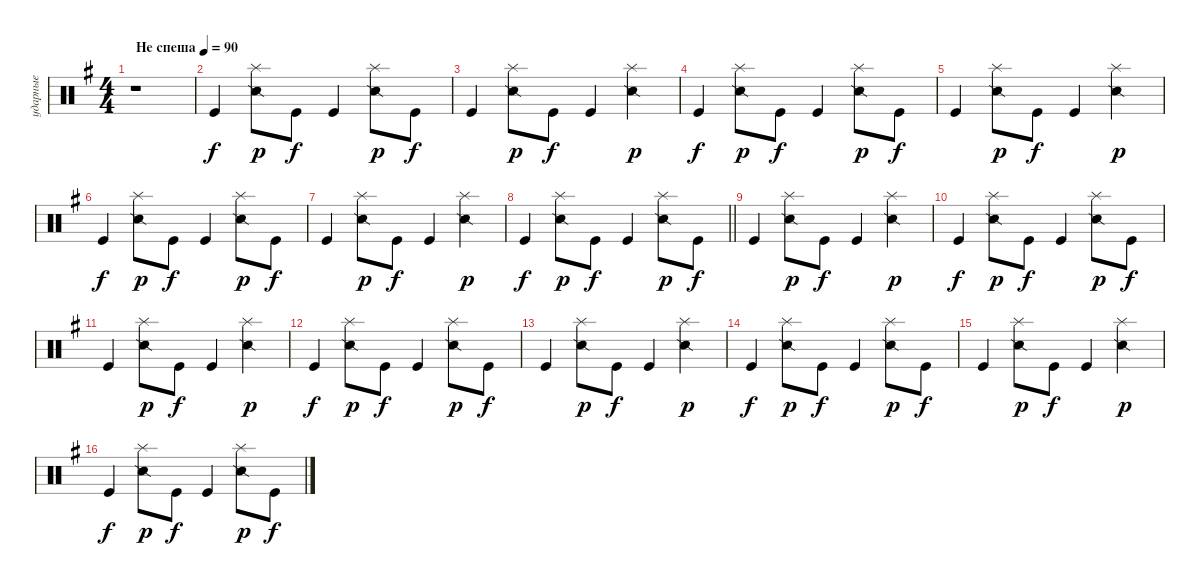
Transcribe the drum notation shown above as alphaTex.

\track ("ударные" "ударные") {instrument percussion}
\staff {score}
\articulation defaults
\ts (4 4)
\section ("" "")
\tempo (90 "Не спеша")
\clef neutral
\ks eminor
r.1{dy f} |
"Kick (hit)".4 ("Splash (hit)" "Snare (side stick) 2").8{dy p} "Kick (hit)".8{dy f} "Kick (hit)".4 ("Splash (hit)" "Snare (side stick) 2").8{dy p} "Kick (hit)".8{dy f} |
"Kick (hit)".4 ("Splash (hit)" "Snare (side stick) 2").8{dy p} "Kick (hit)".8{dy f} "Kick (hit)".4 ("Splash (hit)" "Snare (side stick) 2").4{dy p} |
"Kick (hit)".4{dy f} ("Splash (hit)" "Snare (side stick) 2").8{dy p} "Kick (hit)".8{dy f} "Kick (hit)".4 ("Splash (hit)" "Snare (side stick) 2").8{dy p} "Kick (hit)".8{dy f} |
"Kick (hit)".4 ("Splash (hit)" "Snare (side stick) 2").8{dy p} "Kick (hit)".8{dy f} "Kick (hit)".4 ("Splash (hit)" "Snare (side stick) 2").4{dy p} |
"Kick (hit)".4{dy f} ("Splash (hit)" "Snare (side stick) 2").8{dy p} "Kick (hit)".8{dy f} "Kick (hit)".4 ("Splash (hit)" "Snare (side stick) 2").8{dy p} "Kick (hit)".8{dy f} |
"Kick (hit)".4 ("Splash (hit)" "Snare (side stick) 2").8{dy p} "Kick (hit)".8{dy f} "Kick (hit)".4 ("Splash (hit)" "Snare (side stick) 2").4{dy p} |
\barLineRight lightlight "Kick (hit)".4{dy f}
("Splash (hit)" "Snare (side stick) 2").8{dy p} "Kick (hit)".8{dy f} "Kick (hit)".4 ("Splash (hit)" "Snare (side stick) 2").8{dy p} "Kick (hit)".8{dy f} |
\section ("" "")
"Kick (hit)".4 ("Splash (hit)" "Snare (side stick) 2").8{dy p} "Kick (hit)".8{dy f} "Kick (hit)".4 ("Splash (hit)" "Snare (side stick) 2").4{dy p} |
"Kick (hit)".4{dy f} ("Splash (hit)" "Snare (side stick) 2").8{dy p} "Kick (hit)".8{dy f} "Kick (hit)".4 ("Splash (hit)" "Snare (side stick) 2").8{dy p} "Kick (hit)".8{dy f} |
"Kick (hit)".4 ("Splash (hit)" "Snare (side stick) 2").8{dy p} "Kick (hit)".8{dy f} "Kick (hit)".4 ("Splash (hit)" "Snare (side stick) 2").4{dy p} |
"Kick (hit)".4{dy f} ("Splash (hit)" "Snare (side stick) 2").8{dy p} "Kick (hit)".8{dy f} "Kick (hit)".4 ("Splash (hit)" "Snare (side stick) 2").8{dy p} "Kick (hit)".8{dy f} |
"Kick (hit)".4 ("Splash (hit)" "Snare (side stick) 2").8{dy p} "Kick (hit)".8{dy f} "Kick (hit)".4 ("Splash (hit)" "Snare (side stick) 2").4{dy p} |
"Kick (hit)".4{dy f} ("Splash (hit)" "Snare (side stick) 2").8{dy p} "Kick (hit)".8{dy f} "Kick (hit)".4 ("Splash (hit)" "Snare (side stick) 2").8{dy p} "Kick (hit)".8{dy f} |
"Kick (hit)".4 ("Splash (hit)" "Snare (side stick) 2").8{dy p} "Kick (hit)".8{dy f} "Kick (hit)".4 ("Splash (hit)" "Snare (side stick) 2").4{dy p} |
"Kick (hit)".4{dy f} ("Splash (hit)" "Snare (side stick) 2").8{dy p} "Kick (hit)".8{dy f} "Kick (hit)".4 ("Splash (hit)" "Snare (side stick) 2").8{dy p} "Kick (hit)".8{dy f}
